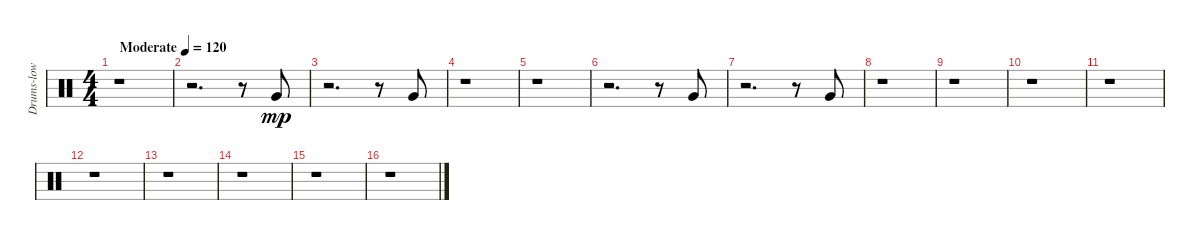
\track ("Drums-low tom 1" "Drums-low ") {instrument percussion}
\staff {score}
\articulation defaults
\ts (4 4)
\tempo (120 "Moderate")
\clef neutral
\ks c
r.1{dy mp} |
r.2{d} r.8 "Very Low Tom (hit)".8 |
r.2{d} r.8 "Very Low Tom (hit)".8 |
r.1 |
r.1 |
r.2{d} r.8 "Very Low Tom (hit)".8 |
r.2{d} r.8 "Very Low Tom (hit)".8 |
r.1 |
r.1 |
r.1 |
r.1 |
r.1 |
r.1 |
r.1 |
r.1 |
r.1
